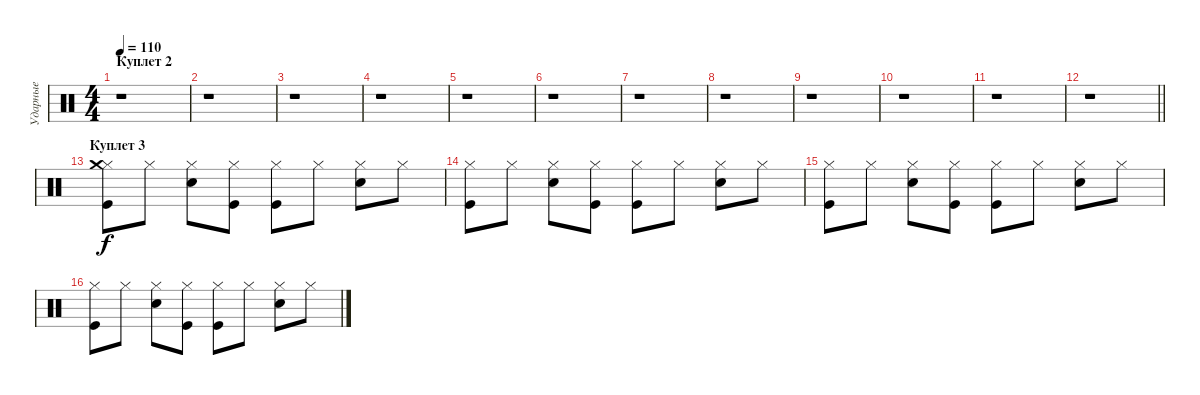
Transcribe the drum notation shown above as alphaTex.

\track ("Ударные" "Ударные") {instrument percussion}
\staff {score}
\articulation defaults
\ts (4 4)
\section ("" "Куплет 2")
\tempo 110
\clef neutral
\ks c
r.1{dy f} |
r.1 |
r.1 |
r.1 |
r.1 |
r.1 |
r.1 |
r.1 |
r.1 |
r.1 |
r.1 |
\barLineRight lightlight
r.1 |
\section ("" "Куплет 3")
("Kick (hit)" "Hi-Hat (closed)" "Crash medium (hit)").8 "Hi-Hat (closed)".8 ("Snare (hit) 2" "Hi-Hat (closed)").8 ("Kick (hit)" "Hi-Hat (closed)").8 ("Hi-Hat (closed)" "Kick (hit)").8 "Hi-Hat (closed)".8 ("Snare (hit) 2" "Hi-Hat (closed)").8 "Hi-Hat (closed)".8 |
("Kick (hit)" "Hi-Hat (closed)").8 "Hi-Hat (closed)".8 ("Snare (hit) 2" "Hi-Hat (closed)").8 ("Kick (hit)" "Hi-Hat (closed)").8 ("Hi-Hat (closed)" "Kick (hit)").8 "Hi-Hat (closed)".8 ("Snare (hit) 2" "Hi-Hat (closed)").8 "Hi-Hat (closed)".8 |
("Kick (hit)" "Hi-Hat (closed)").8 "Hi-Hat (closed)".8 ("Snare (hit) 2" "Hi-Hat (closed)").8 ("Kick (hit)" "Hi-Hat (closed)").8 ("Hi-Hat (closed)" "Kick (hit)").8 "Hi-Hat (closed)".8 ("Snare (hit) 2" "Hi-Hat (closed)").8 "Hi-Hat (closed)".8 |
("Kick (hit)" "Hi-Hat (closed)").8 "Hi-Hat (closed)".8 ("Snare (hit) 2" "Hi-Hat (closed)").8 ("Kick (hit)" "Hi-Hat (closed)").8 ("Hi-Hat (closed)" "Kick (hit)").8 "Hi-Hat (closed)".8 ("Snare (hit) 2" "Hi-Hat (closed)").8 "Hi-Hat (closed)".8
